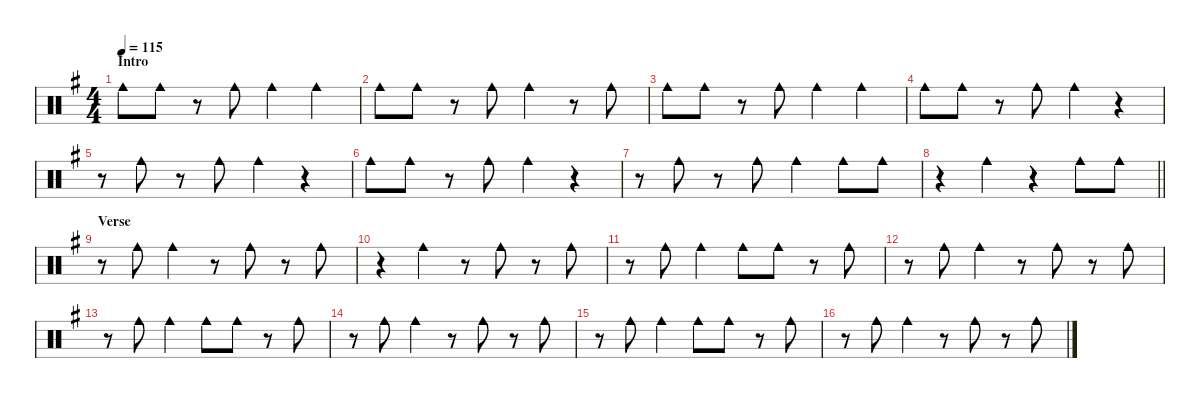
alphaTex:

\defaultSystemsLayout 8
\hideDynamics
\bracketExtendMode nobrackets
\singleTrackTrackNamePolicy hidden
\multiTrackTrackNamePolicy hidden
\otherSystemsTrackNameOrientation horizontal
\track ("Cowbell" "drm.") {defaultSystemsLayout 8 instrument percussion}
\staff {score}
\articulation defaults
\ts (4 4)
\beaming (8 2 2 2 2)
\section ("" "Intro")
\tempo 115
\clef neutral
\ks g "Cowbell medium (hit)"{acc forcenatural}.8{dy f beam Down} "Cowbell medium (hit)"{acc forcenatural}.8{beam Down}
r.8{beam Down} "Cowbell medium (hit)"{acc forcenatural}.8{beam Down} "Cowbell medium (hit)"{acc forcenatural}.4{beam Down} "Cowbell medium (hit)"{acc forcenatural}.4{beam Down} |
"Cowbell medium (hit)"{acc forcenatural}.8{beam Down} "Cowbell medium (hit)"{acc forcenatural}.8{beam Down} r.8{beam Down} "Cowbell medium (hit)"{acc forcenatural}.8{beam Down} "Cowbell medium (hit)"{acc forcenatural}.4{beam Down} r.8{beam Down} "Cowbell medium (hit)"{acc forcenatural}.8{beam Down} |
"Cowbell medium (hit)"{acc forcenatural}.8{beam Down} "Cowbell medium (hit)"{acc forcenatural}.8{beam Down} r.8{beam Down} "Cowbell medium (hit)"{acc forcenatural}.8{beam Down} "Cowbell medium (hit)"{acc forcenatural}.4{beam Down} "Cowbell medium (hit)"{acc forcenatural}.4{beam Down} |
"Cowbell medium (hit)"{acc forcenatural}.8{beam Down} "Cowbell medium (hit)"{acc forcenatural}.8{beam Down} r.8{beam Down} "Cowbell medium (hit)"{acc forcenatural}.8{beam Down} "Cowbell medium (hit)"{acc forcenatural}.4{beam Down} r.4{beam Down} |
r.8{beam Down} "Cowbell medium (hit)"{acc forcenatural}.8{beam Down} r.8{beam Down} "Cowbell medium (hit)"{acc forcenatural}.8{beam Down} "Cowbell medium (hit)"{acc forcenatural}.4{beam Down} r.4{beam Down} |
"Cowbell medium (hit)"{acc forcenatural}.8{beam Down} "Cowbell medium (hit)"{acc forcenatural}.8{beam Down} r.8{beam Down} "Cowbell medium (hit)"{acc forcenatural}.8{beam Down} "Cowbell medium (hit)"{acc forcenatural}.4{beam Down} r.4{beam Down} |
r.8{beam Down} "Cowbell medium (hit)"{acc forcenatural}.8{beam Down} r.8{beam Down} "Cowbell medium (hit)"{acc forcenatural}.8{beam Down} "Cowbell medium (hit)"{acc forcenatural}.4{beam Down} "Cowbell medium (hit)"{acc forcenatural}.8{beam Down} "Cowbell medium (hit)"{acc forcenatural}.8{beam Down} |
\barLineRight lightlight
r.4{beam Down} "Cowbell medium (hit)"{acc forcenatural}.4{beam Down} r.4{beam Down} "Cowbell medium (hit)"{acc forcenatural}.8{beam Down} "Cowbell medium (hit)"{acc forcenatural}.8{beam Down} |
\section ("" "Verse")
r.8{beam Down} "Cowbell medium (hit)"{acc forcenatural}.8{beam Down} "Cowbell medium (hit)"{acc forcenatural}.4{beam Down} r.8{beam Down} "Cowbell medium (hit)"{acc forcenatural}.8{beam Down} r.8{beam Down} "Cowbell medium (hit)"{acc forcenatural}.8{beam Down} |
r.4{beam Down} "Cowbell medium (hit)"{acc forcenatural}.4{beam Down} r.8{beam Down} "Cowbell medium (hit)"{acc forcenatural}.8{beam Down} r.8{beam Down} "Cowbell medium (hit)"{acc forcenatural}.8{beam Down} |
r.8{beam Down} "Cowbell medium (hit)"{acc forcenatural}.8{beam Down} "Cowbell medium (hit)"{acc forcenatural}.4{beam Down} "Cowbell medium (hit)"{acc forcenatural}.8{beam Down} "Cowbell medium (hit)"{acc forcenatural}.8{beam Down} r.8{beam Down} "Cowbell medium (hit)"{acc forcenatural}.8{beam Down} |
r.8{beam Down} "Cowbell medium (hit)"{acc forcenatural}.8{beam Down} "Cowbell medium (hit)"{acc forcenatural}.4{beam Down} r.8{beam Down} "Cowbell medium (hit)"{acc forcenatural}.8{beam Down} r.8{beam Down} "Cowbell medium (hit)"{acc forcenatural}.8{beam Down} |
r.8{beam Down} "Cowbell medium (hit)"{acc forcenatural}.8{beam Down} "Cowbell medium (hit)"{acc forcenatural}.4{beam Down} "Cowbell medium (hit)"{acc forcenatural}.8{beam Down} "Cowbell medium (hit)"{acc forcenatural}.8{beam Down} r.8{beam Down} "Cowbell medium (hit)"{acc forcenatural}.8{beam Down} |
r.8{beam Down} "Cowbell medium (hit)"{acc forcenatural}.8{beam Down} "Cowbell medium (hit)"{acc forcenatural}.4{beam Down} r.8{beam Down} "Cowbell medium (hit)"{acc forcenatural}.8{beam Down} r.8{beam Down} "Cowbell medium (hit)"{acc forcenatural}.8{beam Down} |
r.8{beam Down} "Cowbell medium (hit)"{acc forcenatural}.8{beam Down} "Cowbell medium (hit)"{acc forcenatural}.4{beam Down} "Cowbell medium (hit)"{acc forcenatural}.8{beam Down} "Cowbell medium (hit)"{acc forcenatural}.8{beam Down} r.8{beam Down} "Cowbell medium (hit)"{acc forcenatural}.8{beam Down} |
r.8{beam Down} "Cowbell medium (hit)"{acc forcenatural}.8{beam Down} "Cowbell medium (hit)"{acc forcenatural}.4{beam Down} r.8{beam Down} "Cowbell medium (hit)"{acc forcenatural}.8{beam Down} r.8{beam Down} "Cowbell medium (hit)"{acc forcenatural}.8{beam Down}
